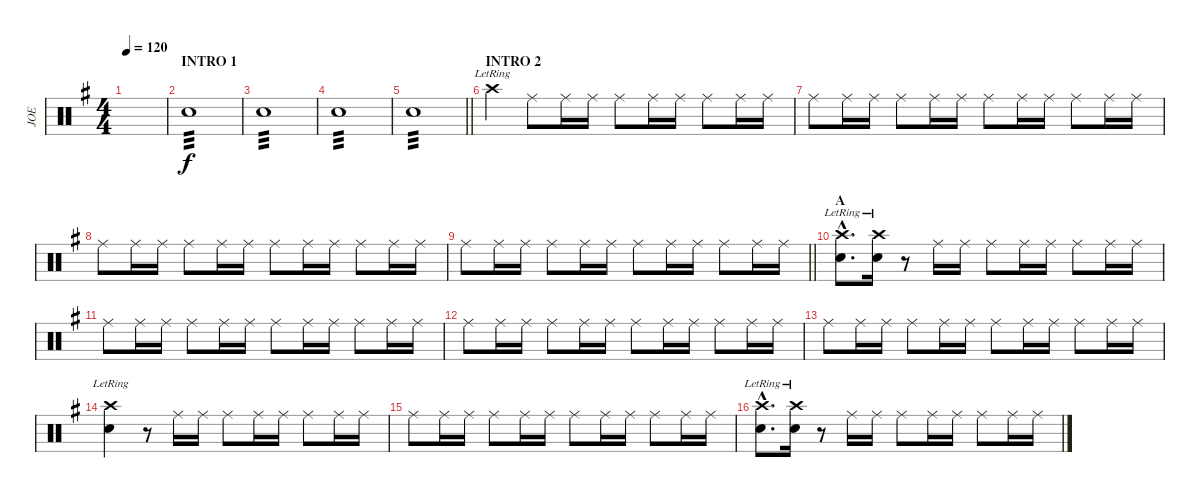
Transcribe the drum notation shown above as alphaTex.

\track ("JOE" "JOE") {instrument percussion}
\staff {score}
\articulation defaults
\ts (4 4)
\tempo 120
\clef neutral
\ks eminor
|
\section ("" "INTRO 1")
"Snare (hit) 2".1{tp 3 volume 3} |
"Snare (hit) 2".1{tp 3} |
"Snare (hit) 2".1{tp 3} |
\barLineRight lightlight "Snare (hit) 2".1{tp 3}
|
\section ("" "INTRO 2")
"Crash high (hit)"{lr}.4{volume 8} "Ride (middle)".8 "Ride (middle)".16 "Ride (middle)".16 "Ride (middle)".8 "Ride (middle)".16 "Ride (middle)".16 "Ride (middle)".8 "Ride (middle)".16 "Ride (middle)".16 |
"Ride (middle)".8 "Ride (middle)".16 "Ride (middle)".16 "Ride (middle)".8 "Ride (middle)".16 "Ride (middle)".16 "Ride (middle)".8 "Ride (middle)".16 "Ride (middle)".16 "Ride (middle)".8 "Ride (middle)".16 "Ride (middle)".16 |
"Ride (middle)".8 "Ride (middle)".16 "Ride (middle)".16 "Ride (middle)".8 "Ride (middle)".16 "Ride (middle)".16 "Ride (middle)".8 "Ride (middle)".16 "Ride (middle)".16 "Ride (middle)".8 "Ride (middle)".16 "Ride (middle)".16 |
\barLineRight lightlight "Ride (middle)".8 "Ride (middle)".16 "Ride (middle)".16 "Ride (middle)".8 "Ride (middle)".16 "Ride (middle)".16 "Ride (middle)".8 "Ride (middle)".16 "Ride (middle)".16 "Ride (middle)".8 "Ride (middle)".16 "Ride (middle)".16
|
\section ("" "A")
("Crash high (hit)"{hac lr} "Snare (hit) 2"{hac}).8{d} ("Crash high (hit)"{lr} "Snare (hit) 2").16 r.8 "Ride (middle)".16 "Ride (middle)".16 "Ride (middle)".8 "Ride (middle)".16 "Ride (middle)".16 "Ride (middle)".8 "Ride (middle)".16 "Ride (middle)".16 |
"Ride (middle)".8 "Ride (middle)".16 "Ride (middle)".16 "Ride (middle)".8 "Ride (middle)".16 "Ride (middle)".16 "Ride (middle)".8 "Ride (middle)".16 "Ride (middle)".16 "Ride (middle)".8 "Ride (middle)".16 "Ride (middle)".16 |
"Ride (middle)".8 "Ride (middle)".16 "Ride (middle)".16 "Ride (middle)".8 "Ride (middle)".16 "Ride (middle)".16 "Ride (middle)".8 "Ride (middle)".16 "Ride (middle)".16 "Ride (middle)".8 "Ride (middle)".16 "Ride (middle)".16 |
"Ride (middle)".8 "Ride (middle)".16 "Ride (middle)".16 "Ride (middle)".8 "Ride (middle)".16 "Ride (middle)".16 "Ride (middle)".8 "Ride (middle)".16 "Ride (middle)".16 "Ride (middle)".8 "Ride (middle)".16 "Ride (middle)".16 |
("Crash high (hit)"{lr} "Snare (hit) 2").4 r.8 "Ride (middle)".16 "Ride (middle)".16 "Ride (middle)".8 "Ride (middle)".16 "Ride (middle)".16 "Ride (middle)".8 "Ride (middle)".16 "Ride (middle)".16 |
"Ride (middle)".8 "Ride (middle)".16 "Ride (middle)".16 "Ride (middle)".8 "Ride (middle)".16 "Ride (middle)".16 "Ride (middle)".8 "Ride (middle)".16 "Ride (middle)".16 "Ride (middle)".8 "Ride (middle)".16 "Ride (middle)".16 |
("Crash high (hit)"{hac lr} "Snare (hit) 2"{hac}).8{d} ("Crash high (hit)"{lr} "Snare (hit) 2").16 r.8 "Ride (middle)".16 "Ride (middle)".16 "Ride (middle)".8 "Ride (middle)".16 "Ride (middle)".16 "Ride (middle)".8 "Ride (middle)".16 "Ride (middle)".16
